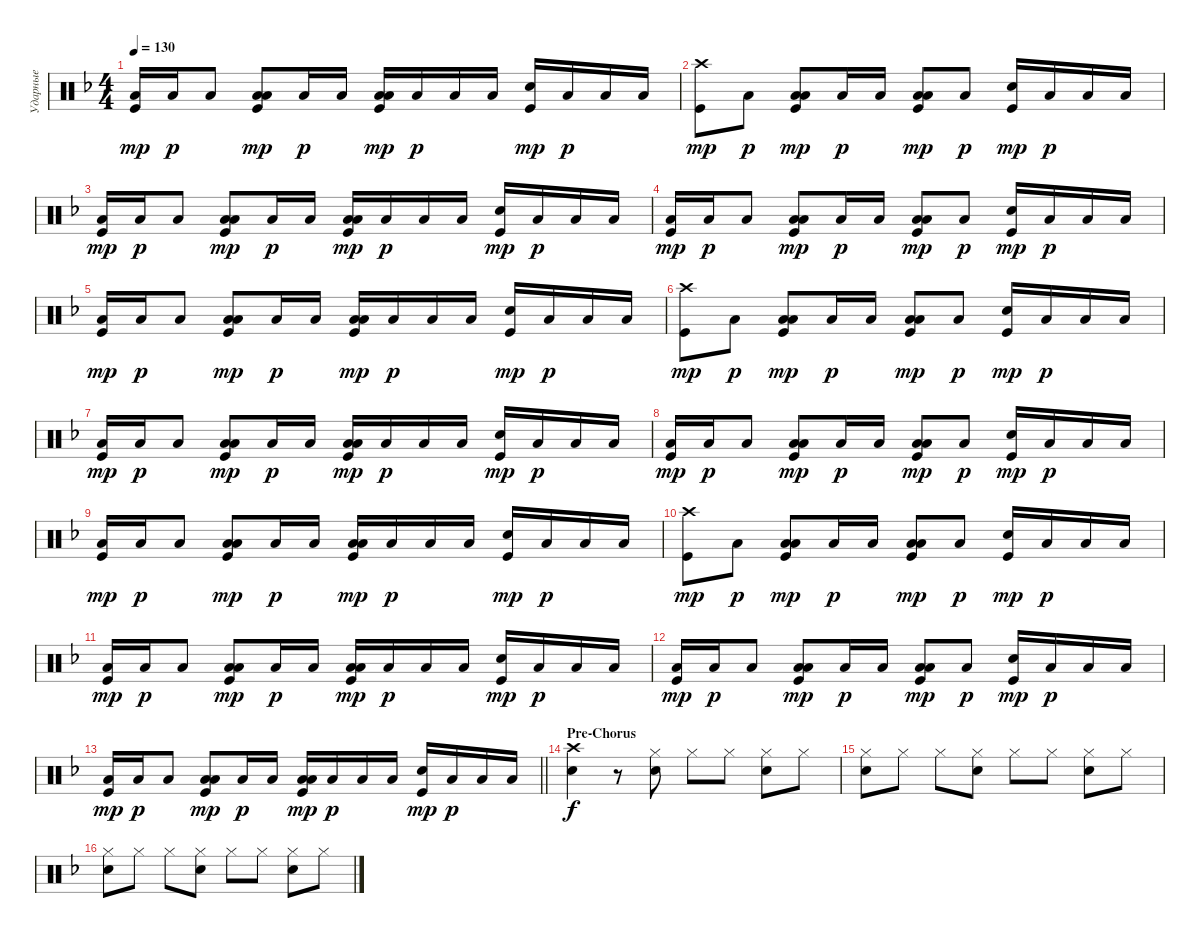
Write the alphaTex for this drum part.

\track ("Ударные" "Ударные") {instrument percussion}
\staff {score}
\articulation defaults
\ts (4 4)
\tempo 130
\clef neutral
\ks dminor
("Low Tom (hit)" "Kick (hit)").16{dy mp} "Low Tom (hit)".16{dy p} "Low Tom (hit)".8{bd 240} ("Low Tom (hit)" "Kick (hit)" "Low Tom (hit)").8{bd 240 dy mp} "Low Tom (hit)".16{dy p} "Low Tom (hit)".16 ("Low Tom (hit)" "Kick (hit)" "Low Tom (hit)").16{bd 240 dy mp} "Low Tom (hit)".16{dy p} "Low Tom (hit)".16 "Low Tom (hit)".16 ("Kick (hit)" "Snare (hit) 2").16{dy mp} "Low Tom (hit)".16{dy p} "Low Tom (hit)".16 "Low Tom (hit)".16 |
("Kick (hit)" "Crash high (hit)").8{dy mp} "Low Tom (hit)".8{dy p} ("Low Tom (hit)" "Kick (hit)" "Low Tom (hit)").8{bd 240 dy mp} "Low Tom (hit)".16{dy p} "Low Tom (hit)".16 ("Low Tom (hit)" "Kick (hit)" "Low Tom (hit)").8{bd 240 dy mp} "Low Tom (hit)".8{dy p} ("Kick (hit)" "Snare (hit) 2").16{dy mp} "Low Tom (hit)".16{dy p} "Low Tom (hit)".16 "Low Tom (hit)".16 |
("Low Tom (hit)" "Kick (hit)").16{dy mp} "Low Tom (hit)".16{dy p} "Low Tom (hit)".8{bd 240} ("Low Tom (hit)" "Kick (hit)" "Low Tom (hit)").8{bd 240 dy mp} "Low Tom (hit)".16{dy p} "Low Tom (hit)".16 ("Low Tom (hit)" "Kick (hit)" "Low Tom (hit)").16{bd 240 dy mp} "Low Tom (hit)".16{dy p} "Low Tom (hit)".16 "Low Tom (hit)".16 ("Kick (hit)" "Snare (hit) 2").16{dy mp} "Low Tom (hit)".16{dy p} "Low Tom (hit)".16 "Low Tom (hit)".16 |
("Low Tom (hit)" "Kick (hit)").16{dy mp} "Low Tom (hit)".16{dy p} "Low Tom (hit)".8{bd 240} ("Low Tom (hit)" "Kick (hit)" "Low Tom (hit)").8{bd 240 dy mp} "Low Tom (hit)".16{dy p} "Low Tom (hit)".16 ("Low Tom (hit)" "Kick (hit)" "Low Tom (hit)").8{bd 240 dy mp} "Low Tom (hit)".8{dy p} ("Kick (hit)" "Snare (hit) 2").16{dy mp} "Low Tom (hit)".16{dy p} "Low Tom (hit)".16 "Low Tom (hit)".16 |
("Low Tom (hit)" "Kick (hit)").16{dy mp} "Low Tom (hit)".16{dy p} "Low Tom (hit)".8{bd 240} ("Low Tom (hit)" "Kick (hit)" "Low Tom (hit)").8{bd 240 dy mp} "Low Tom (hit)".16{dy p} "Low Tom (hit)".16 ("Low Tom (hit)" "Kick (hit)" "Low Tom (hit)").16{bd 240 dy mp} "Low Tom (hit)".16{dy p} "Low Tom (hit)".16 "Low Tom (hit)".16 ("Kick (hit)" "Snare (hit) 2").16{dy mp} "Low Tom (hit)".16{dy p} "Low Tom (hit)".16 "Low Tom (hit)".16 |
("Kick (hit)" "Crash high (hit)").8{dy mp} "Low Tom (hit)".8{dy p} ("Low Tom (hit)" "Kick (hit)" "Low Tom (hit)").8{bd 240 dy mp} "Low Tom (hit)".16{dy p} "Low Tom (hit)".16 ("Low Tom (hit)" "Kick (hit)" "Low Tom (hit)").8{bd 240 dy mp} "Low Tom (hit)".8{dy p} ("Kick (hit)" "Snare (hit) 2").16{dy mp} "Low Tom (hit)".16{dy p} "Low Tom (hit)".16 "Low Tom (hit)".16 |
("Low Tom (hit)" "Kick (hit)").16{dy mp} "Low Tom (hit)".16{dy p} "Low Tom (hit)".8{bd 240} ("Low Tom (hit)" "Kick (hit)" "Low Tom (hit)").8{bd 240 dy mp} "Low Tom (hit)".16{dy p} "Low Tom (hit)".16 ("Low Tom (hit)" "Kick (hit)" "Low Tom (hit)").16{bd 240 dy mp} "Low Tom (hit)".16{dy p} "Low Tom (hit)".16 "Low Tom (hit)".16 ("Kick (hit)" "Snare (hit) 2").16{dy mp} "Low Tom (hit)".16{dy p} "Low Tom (hit)".16 "Low Tom (hit)".16 |
("Low Tom (hit)" "Kick (hit)").16{dy mp} "Low Tom (hit)".16{dy p} "Low Tom (hit)".8{bd 240} ("Low Tom (hit)" "Kick (hit)" "Low Tom (hit)").8{bd 240 dy mp} "Low Tom (hit)".16{dy p} "Low Tom (hit)".16 ("Low Tom (hit)" "Kick (hit)" "Low Tom (hit)").8{bd 240 dy mp} "Low Tom (hit)".8{dy p} ("Kick (hit)" "Snare (hit) 2").16{dy mp} "Low Tom (hit)".16{dy p} "Low Tom (hit)".16 "Low Tom (hit)".16 |
("Low Tom (hit)" "Kick (hit)").16{dy mp} "Low Tom (hit)".16{dy p} "Low Tom (hit)".8{bd 240} ("Low Tom (hit)" "Kick (hit)" "Low Tom (hit)").8{bd 240 dy mp} "Low Tom (hit)".16{dy p} "Low Tom (hit)".16 ("Low Tom (hit)" "Kick (hit)" "Low Tom (hit)").16{bd 240 dy mp} "Low Tom (hit)".16{dy p} "Low Tom (hit)".16 "Low Tom (hit)".16 ("Kick (hit)" "Snare (hit) 2").16{dy mp} "Low Tom (hit)".16{dy p} "Low Tom (hit)".16 "Low Tom (hit)".16 |
("Kick (hit)" "Crash high (hit)").8{dy mp} "Low Tom (hit)".8{dy p} ("Low Tom (hit)" "Kick (hit)" "Low Tom (hit)").8{bd 240 dy mp} "Low Tom (hit)".16{dy p} "Low Tom (hit)".16 ("Low Tom (hit)" "Kick (hit)" "Low Tom (hit)").8{bd 240 dy mp} "Low Tom (hit)".8{dy p} ("Kick (hit)" "Snare (hit) 2").16{dy mp} "Low Tom (hit)".16{dy p} "Low Tom (hit)".16 "Low Tom (hit)".16 |
("Low Tom (hit)" "Kick (hit)").16{dy mp} "Low Tom (hit)".16{dy p} "Low Tom (hit)".8{bd 240} ("Low Tom (hit)" "Kick (hit)" "Low Tom (hit)").8{bd 240 dy mp} "Low Tom (hit)".16{dy p} "Low Tom (hit)".16 ("Low Tom (hit)" "Kick (hit)" "Low Tom (hit)").16{bd 240 dy mp} "Low Tom (hit)".16{dy p} "Low Tom (hit)".16 "Low Tom (hit)".16 ("Kick (hit)" "Snare (hit) 2").16{dy mp} "Low Tom (hit)".16{dy p} "Low Tom (hit)".16 "Low Tom (hit)".16 |
("Low Tom (hit)" "Kick (hit)").16{dy mp} "Low Tom (hit)".16{dy p} "Low Tom (hit)".8{bd 240} ("Low Tom (hit)" "Kick (hit)" "Low Tom (hit)").8{bd 240 dy mp} "Low Tom (hit)".16{dy p} "Low Tom (hit)".16 ("Low Tom (hit)" "Kick (hit)" "Low Tom (hit)").8{bd 240 dy mp} "Low Tom (hit)".8{dy p} ("Kick (hit)" "Snare (hit) 2").16{dy mp} "Low Tom (hit)".16{dy p} "Low Tom (hit)".16 "Low Tom (hit)".16 |
\barLineRight lightlight
("Low Tom (hit)" "Kick (hit)").16{dy mp} "Low Tom (hit)".16{dy p} "Low Tom (hit)".8{bd 240} ("Low Tom (hit)" "Kick (hit)" "Low Tom (hit)").8{bd 240 dy mp} "Low Tom (hit)".16{dy p} "Low Tom (hit)".16 ("Low Tom (hit)" "Kick (hit)" "Low Tom (hit)").16{bd 240 dy mp} "Low Tom (hit)".16{dy p} "Low Tom (hit)".16 "Low Tom (hit)".16 ("Kick (hit)" "Snare (hit) 2").16{dy mp} "Low Tom (hit)".16{dy p} "Low Tom (hit)".16 "Low Tom (hit)".16 |
\section ("" "Pre-Chorus")
("Snare (hit) 2" "Crash high (hit)").4{dy f} r.8 ("Hi-Hat (closed)" "Snare (hit) 2").8 "Hi-Hat (closed)".8 "Hi-Hat (closed)".8 ("Hi-Hat (closed)" "Snare (hit) 2").8 "Hi-Hat (closed)".8 |
("Snare (hit) 2" "Hi-Hat (closed)").8 "Hi-Hat (closed)".8 "Hi-Hat (closed)".8 ("Hi-Hat (closed)" "Snare (hit) 2").8 "Hi-Hat (closed)".8 "Hi-Hat (closed)".8 ("Hi-Hat (closed)" "Snare (hit) 2").8 "Hi-Hat (closed)".8 |
("Snare (hit) 2" "Hi-Hat (closed)").8 "Hi-Hat (closed)".8 "Hi-Hat (closed)".8 ("Hi-Hat (closed)" "Snare (hit) 2").8 "Hi-Hat (closed)".8 "Hi-Hat (closed)".8 ("Hi-Hat (closed)" "Snare (hit) 2").8 "Hi-Hat (closed)".8
